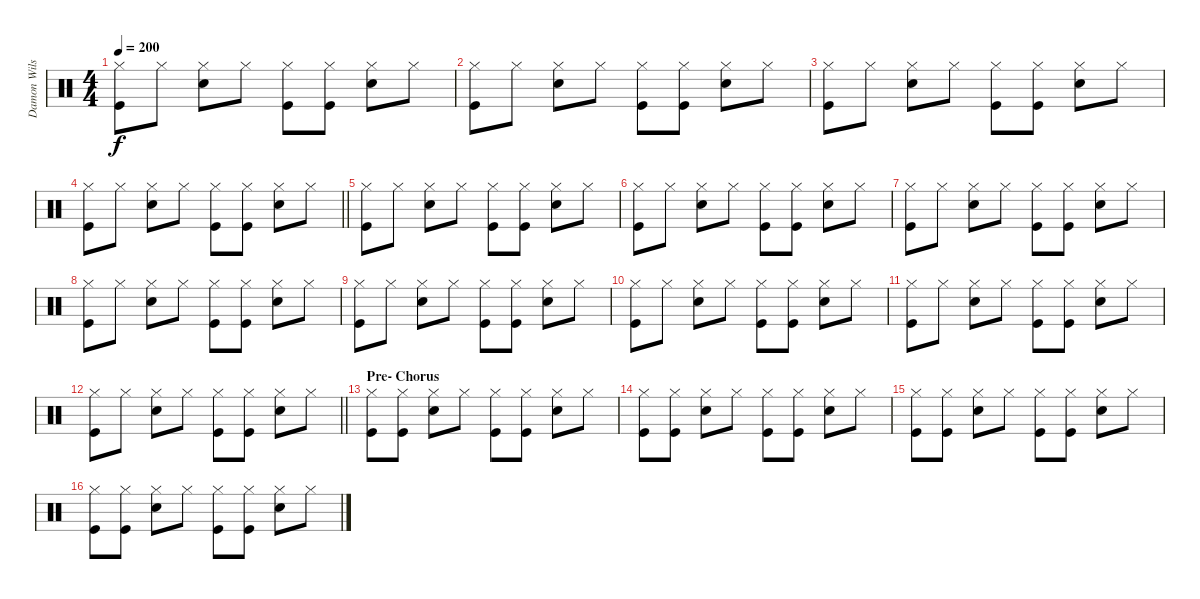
\track ("Damon Wilson" "Damon Wils") {instrument percussion}
\staff {score}
\articulation defaults
\ts (4 4)
\tempo 200
\clef neutral
\ks c
("Hi-Hat (closed)" "Kick (hit)").8{dy f} "Hi-Hat (closed)".8 ("Hi-Hat (closed)" "Snare (hit) 2").8 "Hi-Hat (closed)".8 ("Hi-Hat (closed)" "Kick (hit)").8 ("Hi-Hat (closed)" "Kick (hit)").8 ("Hi-Hat (closed)" "Snare (hit) 2").8 "Hi-Hat (closed)".8 |
("Hi-Hat (closed)" "Kick (hit)").8 "Hi-Hat (closed)".8 ("Hi-Hat (closed)" "Snare (hit) 2").8 "Hi-Hat (closed)".8 ("Hi-Hat (closed)" "Kick (hit)").8 ("Hi-Hat (closed)" "Kick (hit)").8 ("Hi-Hat (closed)" "Snare (hit) 2").8 "Hi-Hat (closed)".8 |
("Hi-Hat (closed)" "Kick (hit)").8 "Hi-Hat (closed)".8 ("Hi-Hat (closed)" "Snare (hit) 2").8 "Hi-Hat (closed)".8 ("Hi-Hat (closed)" "Kick (hit)").8 ("Hi-Hat (closed)" "Kick (hit)").8 ("Hi-Hat (closed)" "Snare (hit) 2").8 "Hi-Hat (closed)".8 |
\barLineRight lightlight
("Hi-Hat (closed)" "Kick (hit)").8 "Hi-Hat (closed)".8 ("Hi-Hat (closed)" "Snare (hit) 2").8 "Hi-Hat (closed)".8 ("Hi-Hat (closed)" "Kick (hit)").8 ("Hi-Hat (closed)" "Kick (hit)").8 ("Hi-Hat (closed)" "Snare (hit) 2").8 "Hi-Hat (closed)".8 |
("Hi-Hat (closed)" "Kick (hit)").8 "Hi-Hat (closed)".8 ("Hi-Hat (closed)" "Snare (hit) 2").8 "Hi-Hat (closed)".8 ("Hi-Hat (closed)" "Kick (hit)").8 ("Hi-Hat (closed)" "Kick (hit)").8 ("Hi-Hat (closed)" "Snare (hit) 2").8 "Hi-Hat (closed)".8 |
("Hi-Hat (closed)" "Kick (hit)").8 "Hi-Hat (closed)".8 ("Hi-Hat (closed)" "Snare (hit) 2").8 "Hi-Hat (closed)".8 ("Hi-Hat (closed)" "Kick (hit)").8 ("Hi-Hat (closed)" "Kick (hit)").8 ("Hi-Hat (closed)" "Snare (hit) 2").8 "Hi-Hat (closed)".8 |
("Hi-Hat (closed)" "Kick (hit)").8 "Hi-Hat (closed)".8 ("Hi-Hat (closed)" "Snare (hit) 2").8 "Hi-Hat (closed)".8 ("Hi-Hat (closed)" "Kick (hit)").8 ("Hi-Hat (closed)" "Kick (hit)").8 ("Hi-Hat (closed)" "Snare (hit) 2").8 "Hi-Hat (closed)".8 |
("Hi-Hat (closed)" "Kick (hit)").8 "Hi-Hat (closed)".8 ("Hi-Hat (closed)" "Snare (hit) 2").8 "Hi-Hat (closed)".8 ("Hi-Hat (closed)" "Kick (hit)").8 ("Hi-Hat (closed)" "Kick (hit)").8 ("Hi-Hat (closed)" "Snare (hit) 2").8 "Hi-Hat (closed)".8 |
("Hi-Hat (closed)" "Kick (hit)").8 "Hi-Hat (closed)".8 ("Hi-Hat (closed)" "Snare (hit) 2").8 "Hi-Hat (closed)".8 ("Hi-Hat (closed)" "Kick (hit)").8 ("Hi-Hat (closed)" "Kick (hit)").8 ("Hi-Hat (closed)" "Snare (hit) 2").8 "Hi-Hat (closed)".8 |
("Hi-Hat (closed)" "Kick (hit)").8 "Hi-Hat (closed)".8 ("Hi-Hat (closed)" "Snare (hit) 2").8 "Hi-Hat (closed)".8 ("Hi-Hat (closed)" "Kick (hit)").8 ("Hi-Hat (closed)" "Kick (hit)").8 ("Hi-Hat (closed)" "Snare (hit) 2").8 "Hi-Hat (closed)".8 |
("Hi-Hat (closed)" "Kick (hit)").8 "Hi-Hat (closed)".8 ("Hi-Hat (closed)" "Snare (hit) 2").8 "Hi-Hat (closed)".8 ("Hi-Hat (closed)" "Kick (hit)").8 ("Hi-Hat (closed)" "Kick (hit)").8 ("Hi-Hat (closed)" "Snare (hit) 2").8 "Hi-Hat (closed)".8 |
\barLineRight lightlight
("Hi-Hat (closed)" "Kick (hit)").8 "Hi-Hat (closed)".8 ("Hi-Hat (closed)" "Snare (hit) 2").8 "Hi-Hat (closed)".8 ("Hi-Hat (closed)" "Kick (hit)").8 ("Hi-Hat (closed)" "Kick (hit)").8 ("Hi-Hat (closed)" "Snare (hit) 2").8 "Hi-Hat (closed)".8 |
\section ("" "Pre- Chorus")
("Hi-Hat (closed)" "Kick (hit)").8 ("Hi-Hat (closed)" "Kick (hit)").8 ("Hi-Hat (closed)" "Snare (hit) 2").8 "Hi-Hat (closed)".8 ("Hi-Hat (closed)" "Kick (hit)").8 ("Hi-Hat (closed)" "Kick (hit)").8 ("Hi-Hat (closed)" "Snare (hit) 2").8 "Hi-Hat (closed)".8 |
("Hi-Hat (closed)" "Kick (hit)").8 ("Hi-Hat (closed)" "Kick (hit)").8 ("Hi-Hat (closed)" "Snare (hit) 2").8 "Hi-Hat (closed)".8 ("Hi-Hat (closed)" "Kick (hit)").8 ("Hi-Hat (closed)" "Kick (hit)").8 ("Hi-Hat (closed)" "Snare (hit) 2").8 "Hi-Hat (closed)".8 |
("Hi-Hat (closed)" "Kick (hit)").8 ("Hi-Hat (closed)" "Kick (hit)").8 ("Hi-Hat (closed)" "Snare (hit) 2").8 "Hi-Hat (closed)".8 ("Hi-Hat (closed)" "Kick (hit)").8 ("Hi-Hat (closed)" "Kick (hit)").8 ("Hi-Hat (closed)" "Snare (hit) 2").8 "Hi-Hat (closed)".8 |
("Hi-Hat (closed)" "Kick (hit)").8 ("Hi-Hat (closed)" "Kick (hit)").8 ("Hi-Hat (closed)" "Snare (hit) 2").8 "Hi-Hat (closed)".8 ("Hi-Hat (closed)" "Kick (hit)").8 ("Hi-Hat (closed)" "Kick (hit)").8 ("Hi-Hat (closed)" "Snare (hit) 2").8 "Hi-Hat (closed)".8
